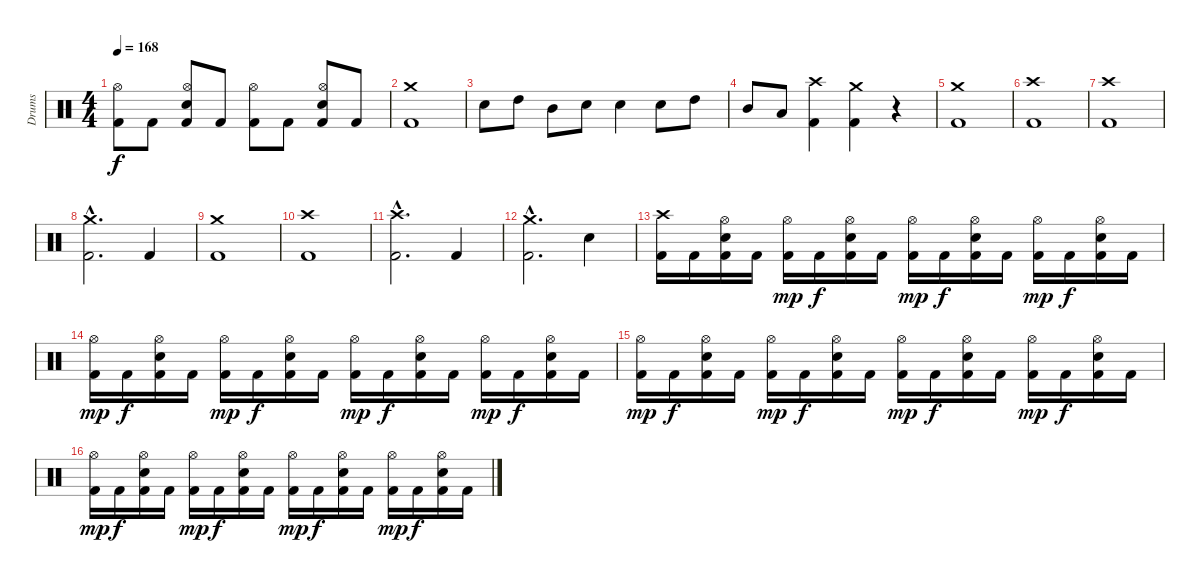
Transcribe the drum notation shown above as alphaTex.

\track ("Drums" "Drums") {instrument percussion}
\staff {score}
\articulation defaults
\ts (4 4)
\tempo 168
\clef neutral
\ks c
("Kick (hit) 2" "Hi-Hat (open)").8{dy f} "Kick (hit) 2".8 ("Kick (hit) 2" "Electric Snare (hit)" "Hi-Hat (open)").8 "Kick (hit) 2".8 ("Kick (hit) 2" "Hi-Hat (open)").8 "Kick (hit) 2".8 ("Kick (hit) 2" "Electric Snare (hit)" "Hi-Hat (open)").8 "Kick (hit) 2".8 |
("Kick (hit) 2" "Crash medium (hit)").1 |
"Electric Snare (hit)".8 "High Tom (hit)".8 "Mid Tom (hit)".8 "Electric Snare (hit)".8 "Electric Snare (hit)".4 "Electric Snare (hit)".8 "High Tom (hit)".8 |
"Mid Tom (hit)".8 "Low Tom (hit)".8 ("Kick (hit) 2" "Crash high (hit)").4 ("Kick (hit) 2" "Crash medium (hit)").4 r.4 |
\section ("" "")
("Kick (hit) 2" "Crash medium (hit)").1 |
("Kick (hit) 2" "Crash high (hit)").1 |
("Kick (hit) 2" "Crash high (hit)").1 |
("Kick (hit) 2"{hac} "Crash medium (hit)"{hac}).2{d} "Kick (hit) 2".4 |
\section ("" "")
("Kick (hit) 2" "Crash medium (hit)").1 |
("Kick (hit) 2" "Crash high (hit)").1 |
("Kick (hit) 2"{hac} "Crash high (hit)"{hac}).2{d} "Kick (hit) 2".4 |
("Kick (hit) 2"{hac} "Crash medium (hit)"{hac}).2{d} "Electric Snare (hit)".4 |
\section ("" "")
("Kick (hit) 2" "Crash high (hit)").16 "Kick (hit) 2".16 ("Kick (hit) 2" "Electric Snare (hit)" "Hi-Hat (open)").16 "Kick (hit) 2".16 ("Kick (hit) 2" "Hi-Hat (open)").16{dy mp} "Kick (hit) 2".16{dy f} ("Kick (hit) 2" "Electric Snare (hit)" "Hi-Hat (open)").16 "Kick (hit) 2".16 ("Kick (hit) 2" "Hi-Hat (open)").16{dy mp} "Kick (hit) 2".16{dy f} ("Kick (hit) 2" "Electric Snare (hit)" "Hi-Hat (open)").16 "Kick (hit) 2".16 ("Kick (hit) 2" "Hi-Hat (open)").16{dy mp} "Kick (hit) 2".16{dy f} ("Kick (hit) 2" "Electric Snare (hit)" "Hi-Hat (open)").16 "Kick (hit) 2".16 |
("Kick (hit) 2" "Hi-Hat (open)").16{dy mp} "Kick (hit) 2".16{dy f} ("Kick (hit) 2" "Electric Snare (hit)" "Hi-Hat (open)").16 "Kick (hit) 2".16 ("Kick (hit) 2" "Hi-Hat (open)").16{dy mp} "Kick (hit) 2".16{dy f} ("Kick (hit) 2" "Electric Snare (hit)" "Hi-Hat (open)").16 "Kick (hit) 2".16 ("Kick (hit) 2" "Hi-Hat (open)").16{dy mp} "Kick (hit) 2".16{dy f} ("Kick (hit) 2" "Electric Snare (hit)" "Hi-Hat (open)").16 "Kick (hit) 2".16 ("Kick (hit) 2" "Hi-Hat (open)").16{dy mp} "Kick (hit) 2".16{dy f} ("Kick (hit) 2" "Electric Snare (hit)" "Hi-Hat (open)").16 "Kick (hit) 2".16 |
("Kick (hit) 2" "Hi-Hat (open)").16{dy mp} "Kick (hit) 2".16{dy f} ("Kick (hit) 2" "Electric Snare (hit)" "Hi-Hat (open)").16 "Kick (hit) 2".16 ("Kick (hit) 2" "Hi-Hat (open)").16{dy mp} "Kick (hit) 2".16{dy f} ("Kick (hit) 2" "Electric Snare (hit)" "Hi-Hat (open)").16 "Kick (hit) 2".16 ("Kick (hit) 2" "Hi-Hat (open)").16{dy mp} "Kick (hit) 2".16{dy f} ("Kick (hit) 2" "Electric Snare (hit)" "Hi-Hat (open)").16 "Kick (hit) 2".16 ("Kick (hit) 2" "Hi-Hat (open)").16{dy mp} "Kick (hit) 2".16{dy f} ("Kick (hit) 2" "Electric Snare (hit)" "Hi-Hat (open)").16 "Kick (hit) 2".16 |
("Kick (hit) 2" "Hi-Hat (open)").16{dy mp} "Kick (hit) 2".16{dy f} ("Kick (hit) 2" "Electric Snare (hit)" "Hi-Hat (open)").16 "Kick (hit) 2".16 ("Kick (hit) 2" "Hi-Hat (open)").16{dy mp} "Kick (hit) 2".16{dy f} ("Kick (hit) 2" "Electric Snare (hit)" "Hi-Hat (open)").16 "Kick (hit) 2".16 ("Kick (hit) 2" "Hi-Hat (open)").16{dy mp} "Kick (hit) 2".16{dy f} ("Kick (hit) 2" "Electric Snare (hit)" "Hi-Hat (open)").16 "Kick (hit) 2".16 ("Kick (hit) 2" "Hi-Hat (open)").16{dy mp} "Kick (hit) 2".16{dy f} ("Kick (hit) 2" "Electric Snare (hit)" "Hi-Hat (open)").16 "Kick (hit) 2".16
